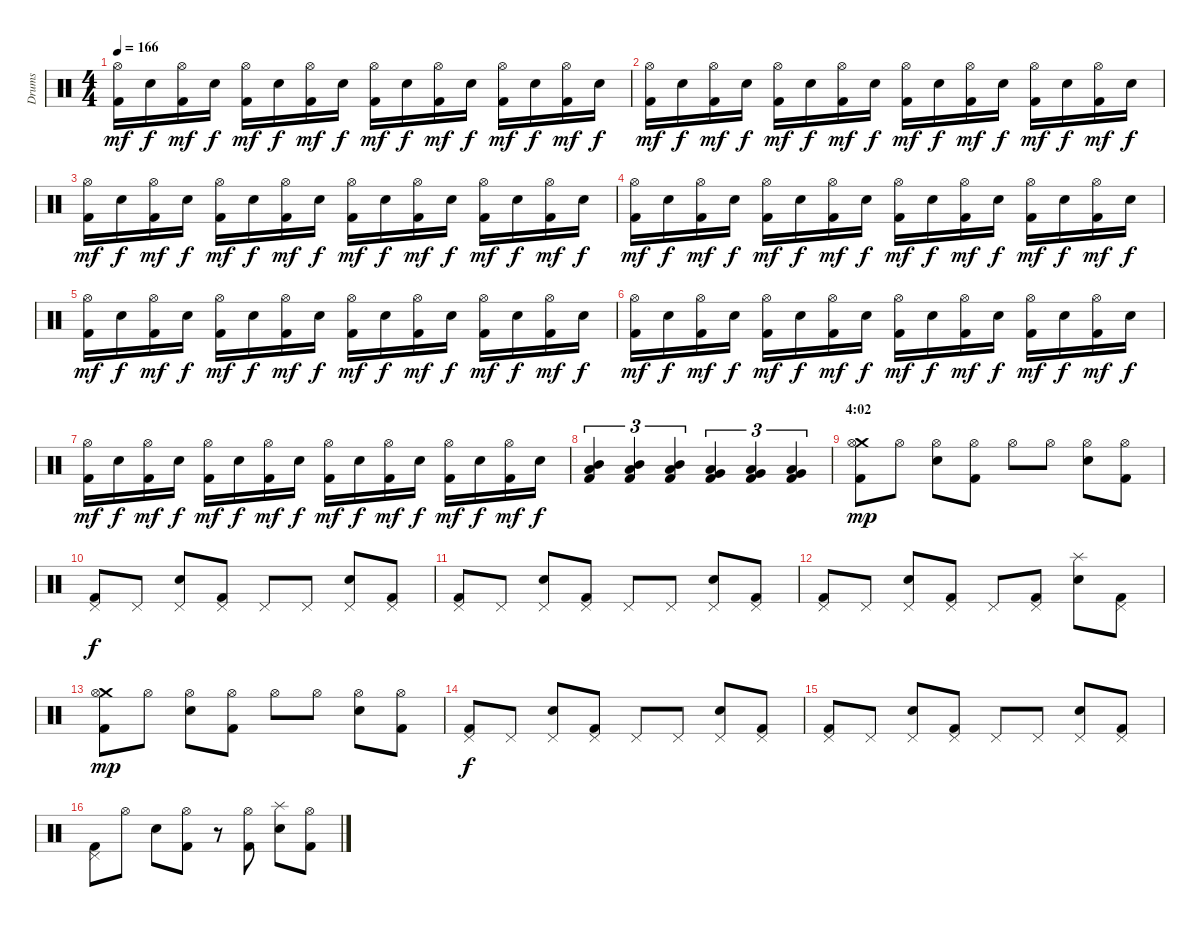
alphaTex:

\track ("Drums" "Drums") {instrument percussion}
\staff {score}
\articulation defaults
\ts (4 4)
\tempo 166
\clef neutral
\ks c
("Hi-Hat (open)" "Kick (hit) 2").16{dy mf} "Snare (hit) 2".16{dy f} ("Hi-Hat (open)" "Kick (hit) 2").16{dy mf} "Snare (hit) 2".16{dy f} ("Hi-Hat (open)" "Kick (hit) 2").16{dy mf} "Snare (hit) 2".16{dy f} ("Hi-Hat (open)" "Kick (hit) 2").16{dy mf} "Snare (hit) 2".16{dy f} ("Hi-Hat (open)" "Kick (hit) 2").16{dy mf} "Snare (hit) 2".16{dy f} ("Hi-Hat (open)" "Kick (hit) 2").16{dy mf} "Snare (hit) 2".16{dy f} ("Hi-Hat (open)" "Kick (hit) 2").16{dy mf} "Snare (hit) 2".16{dy f} ("Hi-Hat (open)" "Kick (hit) 2").16{dy mf} "Snare (hit) 2".16{dy f} |
("Hi-Hat (open)" "Kick (hit) 2").16{dy mf} "Snare (hit) 2".16{dy f} ("Hi-Hat (open)" "Kick (hit) 2").16{dy mf} "Snare (hit) 2".16{dy f} ("Hi-Hat (open)" "Kick (hit) 2").16{dy mf} "Snare (hit) 2".16{dy f} ("Hi-Hat (open)" "Kick (hit) 2").16{dy mf} "Snare (hit) 2".16{dy f} ("Hi-Hat (open)" "Kick (hit) 2").16{dy mf} "Snare (hit) 2".16{dy f} ("Hi-Hat (open)" "Kick (hit) 2").16{dy mf} "Snare (hit) 2".16{dy f} ("Hi-Hat (open)" "Kick (hit) 2").16{dy mf} "Snare (hit) 2".16{dy f} ("Hi-Hat (open)" "Kick (hit) 2").16{dy mf} "Snare (hit) 2".16{dy f} |
("Hi-Hat (open)" "Kick (hit) 2").16{dy mf} "Snare (hit) 2".16{dy f} ("Hi-Hat (open)" "Kick (hit) 2").16{dy mf} "Snare (hit) 2".16{dy f} ("Hi-Hat (open)" "Kick (hit) 2").16{dy mf} "Snare (hit) 2".16{dy f} ("Hi-Hat (open)" "Kick (hit) 2").16{dy mf} "Snare (hit) 2".16{dy f} ("Hi-Hat (open)" "Kick (hit) 2").16{dy mf} "Snare (hit) 2".16{dy f} ("Hi-Hat (open)" "Kick (hit) 2").16{dy mf} "Snare (hit) 2".16{dy f} ("Hi-Hat (open)" "Kick (hit) 2").16{dy mf} "Snare (hit) 2".16{dy f} ("Hi-Hat (open)" "Kick (hit) 2").16{dy mf} "Snare (hit) 2".16{dy f} |
("Hi-Hat (open)" "Kick (hit) 2").16{dy mf} "Snare (hit) 2".16{dy f} ("Hi-Hat (open)" "Kick (hit) 2").16{dy mf} "Snare (hit) 2".16{dy f} ("Hi-Hat (open)" "Kick (hit) 2").16{dy mf} "Snare (hit) 2".16{dy f} ("Hi-Hat (open)" "Kick (hit) 2").16{dy mf} "Snare (hit) 2".16{dy f} ("Hi-Hat (open)" "Kick (hit) 2").16{dy mf} "Snare (hit) 2".16{dy f} ("Hi-Hat (open)" "Kick (hit) 2").16{dy mf} "Snare (hit) 2".16{dy f} ("Hi-Hat (open)" "Kick (hit) 2").16{dy mf} "Snare (hit) 2".16{dy f} ("Hi-Hat (open)" "Kick (hit) 2").16{dy mf} "Snare (hit) 2".16{dy f} |
("Hi-Hat (open)" "Kick (hit) 2").16{dy mf} "Snare (hit) 2".16{dy f} ("Hi-Hat (open)" "Kick (hit) 2").16{dy mf} "Snare (hit) 2".16{dy f} ("Hi-Hat (open)" "Kick (hit) 2").16{dy mf} "Snare (hit) 2".16{dy f} ("Hi-Hat (open)" "Kick (hit) 2").16{dy mf} "Snare (hit) 2".16{dy f} ("Hi-Hat (open)" "Kick (hit) 2").16{dy mf} "Snare (hit) 2".16{dy f} ("Hi-Hat (open)" "Kick (hit) 2").16{dy mf} "Snare (hit) 2".16{dy f} ("Hi-Hat (open)" "Kick (hit) 2").16{dy mf} "Snare (hit) 2".16{dy f} ("Hi-Hat (open)" "Kick (hit) 2").16{dy mf} "Snare (hit) 2".16{dy f} |
("Hi-Hat (open)" "Kick (hit) 2").16{dy mf} "Snare (hit) 2".16{dy f} ("Hi-Hat (open)" "Kick (hit) 2").16{dy mf} "Snare (hit) 2".16{dy f} ("Hi-Hat (open)" "Kick (hit) 2").16{dy mf} "Snare (hit) 2".16{dy f} ("Hi-Hat (open)" "Kick (hit) 2").16{dy mf} "Snare (hit) 2".16{dy f} ("Hi-Hat (open)" "Kick (hit) 2").16{dy mf} "Snare (hit) 2".16{dy f} ("Hi-Hat (open)" "Kick (hit) 2").16{dy mf} "Snare (hit) 2".16{dy f} ("Hi-Hat (open)" "Kick (hit) 2").16{dy mf} "Snare (hit) 2".16{dy f} ("Hi-Hat (open)" "Kick (hit) 2").16{dy mf} "Snare (hit) 2".16{dy f} |
("Hi-Hat (open)" "Kick (hit) 2").16{dy mf} "Snare (hit) 2".16{dy f} ("Hi-Hat (open)" "Kick (hit) 2").16{dy mf} "Snare (hit) 2".16{dy f} ("Hi-Hat (open)" "Kick (hit) 2").16{dy mf} "Snare (hit) 2".16{dy f} ("Hi-Hat (open)" "Kick (hit) 2").16{dy mf} "Snare (hit) 2".16{dy f} ("Hi-Hat (open)" "Kick (hit) 2").16{dy mf} "Snare (hit) 2".16{dy f} ("Hi-Hat (open)" "Kick (hit) 2").16{dy mf} "Snare (hit) 2".16{dy f} ("Hi-Hat (open)" "Kick (hit) 2").16{dy mf} "Snare (hit) 2".16{dy f} ("Hi-Hat (open)" "Kick (hit) 2").16{dy mf} "Snare (hit) 2".16{dy f} |
("Mid Tom (hit)" "Low Tom (hit)" "Kick (hit) 2").4{tu (3 2)} ("Mid Tom (hit)" "Low Tom (hit)" "Kick (hit) 2").4{tu (3 2)} ("Mid Tom (hit)" "Low Tom (hit)" "Kick (hit) 2").4{tu (3 2)} ("Low Tom (hit)" "Very Low Tom (hit)" "Kick (hit) 2").4{tu (3 2)} ("Low Tom (hit)" "Very Low Tom (hit)" "Kick (hit) 2").4{tu (3 2)} ("Low Tom (hit)" "Very Low Tom (hit)" "Kick (hit) 2").4{tu (3 2)} |
\section ("" "4:02")
("Crash medium (hit)" "Hi-Hat (open)" "Kick (hit) 2").8{dy mp} "Hi-Hat (open)".8 ("Hi-Hat (open)" "Electric Snare (hit)").8 ("Hi-Hat (open)" "Kick (hit) 2").8 "Hi-Hat (open)".8 "Hi-Hat (open)".8 ("Hi-Hat (open)" "Electric Snare (hit)").8 ("Hi-Hat (open)" "Kick (hit) 2").8 |
("Pedal Hi-Hat (hit)" "Kick (hit) 2").8{dy f} "Pedal Hi-Hat (hit)".8 ("Pedal Hi-Hat (hit)" "Electric Snare (hit)").8 ("Pedal Hi-Hat (hit)" "Kick (hit) 2").8 "Pedal Hi-Hat (hit)".8 "Pedal Hi-Hat (hit)".8 ("Pedal Hi-Hat (hit)" "Electric Snare (hit)").8 ("Pedal Hi-Hat (hit)" "Kick (hit) 2").8 |
("Pedal Hi-Hat (hit)" "Kick (hit) 2").8 "Pedal Hi-Hat (hit)".8 ("Pedal Hi-Hat (hit)" "Electric Snare (hit)").8 ("Pedal Hi-Hat (hit)" "Kick (hit) 2").8 "Pedal Hi-Hat (hit)".8 "Pedal Hi-Hat (hit)".8 ("Pedal Hi-Hat (hit)" "Electric Snare (hit)").8 ("Pedal Hi-Hat (hit)" "Kick (hit) 2").8 |
("Pedal Hi-Hat (hit)" "Kick (hit) 2").8 "Pedal Hi-Hat (hit)".8 ("Pedal Hi-Hat (hit)" "Electric Snare (hit)").8 ("Pedal Hi-Hat (hit)" "Kick (hit) 2").8 "Pedal Hi-Hat (hit)".8 ("Pedal Hi-Hat (hit)" "Kick (hit) 2").8 ("Splash (hit)" "Electric Snare (hit)").8 ("Pedal Hi-Hat (hit)" "Kick (hit) 2").8 |
("Crash medium (hit)" "Hi-Hat (open)" "Kick (hit) 2").8{dy mp} "Hi-Hat (open)".8 ("Hi-Hat (open)" "Electric Snare (hit)").8 ("Hi-Hat (open)" "Kick (hit) 2").8 "Hi-Hat (open)".8 "Hi-Hat (open)".8 ("Hi-Hat (open)" "Electric Snare (hit)").8 ("Hi-Hat (open)" "Kick (hit) 2").8 |
("Pedal Hi-Hat (hit)" "Kick (hit) 2").8{dy f} "Pedal Hi-Hat (hit)".8 ("Pedal Hi-Hat (hit)" "Electric Snare (hit)").8 ("Pedal Hi-Hat (hit)" "Kick (hit) 2").8 "Pedal Hi-Hat (hit)".8 "Pedal Hi-Hat (hit)".8 ("Pedal Hi-Hat (hit)" "Electric Snare (hit)").8 ("Pedal Hi-Hat (hit)" "Kick (hit) 2").8 |
("Pedal Hi-Hat (hit)" "Kick (hit) 2").8 "Pedal Hi-Hat (hit)".8 ("Pedal Hi-Hat (hit)" "Electric Snare (hit)").8 ("Pedal Hi-Hat (hit)" "Kick (hit) 2").8 "Pedal Hi-Hat (hit)".8 "Pedal Hi-Hat (hit)".8 ("Pedal Hi-Hat (hit)" "Electric Snare (hit)").8 ("Pedal Hi-Hat (hit)" "Kick (hit) 2").8 |
("Pedal Hi-Hat (hit)" "Kick (hit) 2").8 "Hi-Hat (open)".8 "Electric Snare (hit)".8 ("Hi-Hat (open)" "Kick (hit) 2").8 r.8 ("Hi-Hat (open)" "Kick (hit) 2").8 ("Splash (hit)" "Electric Snare (hit)").8 ("Hi-Hat (open)" "Kick (hit) 2").8
